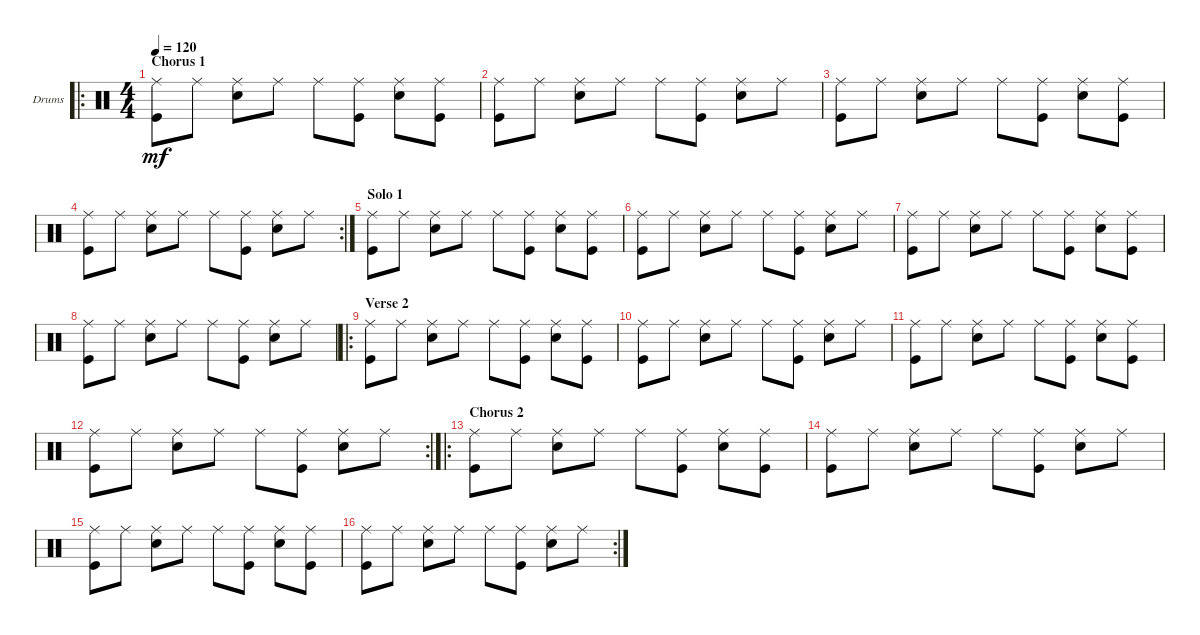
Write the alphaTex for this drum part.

\defaultSystemsLayout 4
\bracketExtendMode groupsimilarinstruments
\firstSystemTrackNameOrientation horizontal
\otherSystemsTrackNameOrientation horizontal
\track ("Drumkit" "Drums") {instrument percussion}
\staff {score}
\articulation defaults
\ro
\ts (4 4)
\section ("" "Chorus 1")
\tempo 120
\clef neutral
\ks c
("Ride (middle)" "Kick (hit)").8{dy mf} "Ride (middle)".8 ("Ride (middle)" "Snare (hit) 2").8 "Ride (middle)".8 "Ride (middle)".8 ("Ride (middle)" "Kick (hit)").8 ("Ride (middle)" "Snare (hit) 2").8 ("Ride (middle)" "Kick (hit)").8 |
("Ride (middle)" "Kick (hit)").8 "Ride (middle)".8 ("Ride (middle)" "Snare (hit) 2").8 "Ride (middle)".8 "Ride (middle)".8 ("Ride (middle)" "Kick (hit)").8 ("Ride (middle)" "Snare (hit) 2").8 "Ride (middle)".8 |
("Ride (middle)" "Kick (hit)").8 "Ride (middle)".8 ("Ride (middle)" "Snare (hit) 2").8 "Ride (middle)".8 "Ride (middle)".8 ("Ride (middle)" "Kick (hit)").8 ("Ride (middle)" "Snare (hit) 2").8 ("Ride (middle)" "Kick (hit)").8 |
\rc 2
("Ride (middle)" "Kick (hit)").8 "Ride (middle)".8 ("Ride (middle)" "Snare (hit) 2").8 "Ride (middle)".8 "Ride (middle)".8 ("Ride (middle)" "Kick (hit)").8 ("Ride (middle)" "Snare (hit) 2").8 "Ride (middle)".8 |
\section ("" "Solo 1")
("Ride (middle)" "Kick (hit)").8 "Ride (middle)".8 ("Ride (middle)" "Snare (hit) 2").8 "Ride (middle)".8 "Ride (middle)".8 ("Ride (middle)" "Kick (hit)").8 ("Ride (middle)" "Snare (hit) 2").8 ("Ride (middle)" "Kick (hit)").8 |
("Ride (middle)" "Kick (hit)").8 "Ride (middle)".8 ("Ride (middle)" "Snare (hit) 2").8 "Ride (middle)".8 "Ride (middle)".8 ("Ride (middle)" "Kick (hit)").8 ("Ride (middle)" "Snare (hit) 2").8 "Ride (middle)".8 |
("Ride (middle)" "Kick (hit)").8 "Ride (middle)".8 ("Ride (middle)" "Snare (hit) 2").8 "Ride (middle)".8 "Ride (middle)".8 ("Ride (middle)" "Kick (hit)").8 ("Ride (middle)" "Snare (hit) 2").8 ("Ride (middle)" "Kick (hit)").8 |
("Ride (middle)" "Kick (hit)").8 "Ride (middle)".8 ("Ride (middle)" "Snare (hit) 2").8 "Ride (middle)".8 "Ride (middle)".8 ("Ride (middle)" "Kick (hit)").8 ("Ride (middle)" "Snare (hit) 2").8 "Ride (middle)".8 |
\ro
\section ("" "Verse 2")
("Ride (middle)" "Kick (hit)").8 "Ride (middle)".8 ("Ride (middle)" "Snare (hit) 2").8 "Ride (middle)".8 "Ride (middle)".8 ("Ride (middle)" "Kick (hit)").8 ("Ride (middle)" "Snare (hit) 2").8 ("Ride (middle)" "Kick (hit)").8 |
("Ride (middle)" "Kick (hit)").8 "Ride (middle)".8 ("Ride (middle)" "Snare (hit) 2").8 "Ride (middle)".8 "Ride (middle)".8 ("Ride (middle)" "Kick (hit)").8 ("Ride (middle)" "Snare (hit) 2").8 "Ride (middle)".8 |
("Ride (middle)" "Kick (hit)").8 "Ride (middle)".8 ("Ride (middle)" "Snare (hit) 2").8 "Ride (middle)".8 "Ride (middle)".8 ("Ride (middle)" "Kick (hit)").8 ("Ride (middle)" "Snare (hit) 2").8 ("Ride (middle)" "Kick (hit)").8 |
\rc 2
("Ride (middle)" "Kick (hit)").8 "Ride (middle)".8 ("Ride (middle)" "Snare (hit) 2").8 "Ride (middle)".8 "Ride (middle)".8 ("Ride (middle)" "Kick (hit)").8 ("Ride (middle)" "Snare (hit) 2").8 "Ride (middle)".8 |
\ro
\section ("" "Chorus 2")
("Ride (middle)" "Kick (hit)").8 "Ride (middle)".8 ("Ride (middle)" "Snare (hit) 2").8 "Ride (middle)".8 "Ride (middle)".8 ("Ride (middle)" "Kick (hit)").8 ("Ride (middle)" "Snare (hit) 2").8 ("Ride (middle)" "Kick (hit)").8 |
("Ride (middle)" "Kick (hit)").8 "Ride (middle)".8 ("Ride (middle)" "Snare (hit) 2").8 "Ride (middle)".8 "Ride (middle)".8 ("Ride (middle)" "Kick (hit)").8 ("Ride (middle)" "Snare (hit) 2").8 "Ride (middle)".8 |
("Ride (middle)" "Kick (hit)").8 "Ride (middle)".8 ("Ride (middle)" "Snare (hit) 2").8 "Ride (middle)".8 "Ride (middle)".8 ("Ride (middle)" "Kick (hit)").8 ("Ride (middle)" "Snare (hit) 2").8 ("Ride (middle)" "Kick (hit)").8 |
\rc 2
("Ride (middle)" "Kick (hit)").8 "Ride (middle)".8 ("Ride (middle)" "Snare (hit) 2").8 "Ride (middle)".8 "Ride (middle)".8 ("Ride (middle)" "Kick (hit)").8 ("Ride (middle)" "Snare (hit) 2").8 "Ride (middle)".8
